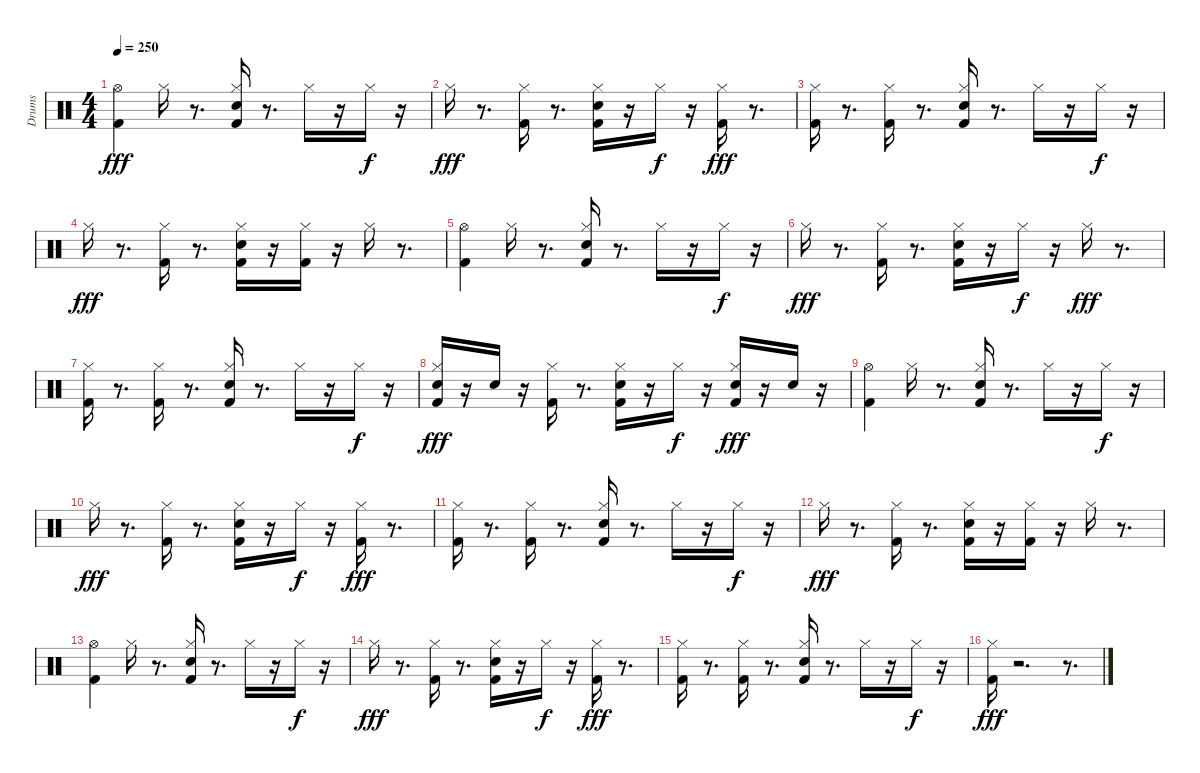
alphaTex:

\track ("Drums" "Drums") {instrument percussion}
\staff {score}
\articulation defaults
\ts (4 4)
\tempo 250
\clef neutral
\ks c
("Hi-Hat (open)" "Kick (hit) 2").4{dy fff} "Hi-Hat (closed)".16 r.8{d} ("Kick (hit) 2" "Electric Snare (hit)" "Hi-Hat (closed)").16 r.8{d} "Hi-Hat (closed)".16 r.16 "Hi-Hat (closed)".16{dy f} r.16 |
"Hi-Hat (closed)".16{dy fff} r.8{d} ("Kick (hit) 2" "Hi-Hat (closed)").16 r.8{d} ("Kick (hit) 2" "Electric Snare (hit)" "Hi-Hat (closed)").16 r.16 "Hi-Hat (closed)".16{dy f} r.16 ("Kick (hit) 2" "Hi-Hat (closed)").16{dy fff} r.8{d} |
("Kick (hit) 2" "Hi-Hat (closed)").16 r.8{d} ("Hi-Hat (closed)" "Kick (hit) 2").16 r.8{d} ("Kick (hit) 2" "Electric Snare (hit)" "Hi-Hat (closed)").16 r.8{d} "Hi-Hat (closed)".16 r.16 "Hi-Hat (closed)".16{dy f} r.16 |
"Hi-Hat (closed)".16{dy fff} r.8{d} ("Kick (hit) 2" "Hi-Hat (closed)").16 r.8{d} ("Kick (hit) 2" "Electric Snare (hit)" "Hi-Hat (closed)").16 r.16 ("Hi-Hat (closed)" "Kick (hit) 2").16 r.16 "Hi-Hat (closed)".16 r.8{d} |
("Kick (hit) 2" "Hi-Hat (open)").4 "Hi-Hat (closed)".16 r.8{d} ("Kick (hit) 2" "Electric Snare (hit)" "Hi-Hat (closed)").16 r.8{d} "Hi-Hat (closed)".16 r.16 "Hi-Hat (closed)".16{dy f} r.16 |
"Hi-Hat (closed)".16{dy fff} r.8{d} ("Kick (hit) 2" "Hi-Hat (closed)").16 r.8{d} ("Kick (hit) 2" "Electric Snare (hit)" "Hi-Hat (closed)").16 r.16 "Hi-Hat (closed)".16{dy f} r.16 "Hi-Hat (closed)".16{dy fff} r.8{d} |
("Kick (hit) 2" "Hi-Hat (closed)").16 r.8{d} ("Hi-Hat (closed)" "Kick (hit) 2").16 r.8{d} ("Kick (hit) 2" "Electric Snare (hit)" "Hi-Hat (closed)").16 r.8{d} "Hi-Hat (closed)".16 r.16 "Hi-Hat (closed)".16{dy f} r.16 |
("Hi-Hat (closed)" "Electric Snare (hit)" "Kick (hit) 2").16{dy fff} r.16 "Electric Snare (hit)".16 r.16 ("Hi-Hat (closed)" "Kick (hit) 2").16 r.8{d} ("Hi-Hat (closed)" "Electric Snare (hit)" "Kick (hit) 2").16 r.16 "Hi-Hat (closed)".16{dy f} r.16 ("Hi-Hat (closed)" "Electric Snare (hit)" "Kick (hit) 2").16{dy fff} r.16 "Electric Snare (hit)".16 r.16 |
("Kick (hit) 2" "Hi-Hat (open)").4 "Hi-Hat (closed)".16 r.8{d} ("Kick (hit) 2" "Electric Snare (hit)" "Hi-Hat (closed)").16 r.8{d} "Hi-Hat (closed)".16 r.16 "Hi-Hat (closed)".16{dy f} r.16 |
"Hi-Hat (closed)".16{dy fff} r.8{d} ("Kick (hit) 2" "Hi-Hat (closed)").16 r.8{d} ("Kick (hit) 2" "Electric Snare (hit)" "Hi-Hat (closed)").16 r.16 "Hi-Hat (closed)".16{dy f} r.16 ("Kick (hit) 2" "Hi-Hat (closed)").16{dy fff} r.8{d} |
("Kick (hit) 2" "Hi-Hat (closed)").16 r.8{d} ("Hi-Hat (closed)" "Kick (hit) 2").16 r.8{d} ("Kick (hit) 2" "Electric Snare (hit)" "Hi-Hat (closed)").16 r.8{d} "Hi-Hat (closed)".16 r.16 "Hi-Hat (closed)".16{dy f} r.16 |
"Hi-Hat (closed)".16{dy fff} r.8{d} ("Kick (hit) 2" "Hi-Hat (closed)").16 r.8{d} ("Kick (hit) 2" "Electric Snare (hit)" "Hi-Hat (closed)").16 r.16 ("Hi-Hat (closed)" "Kick (hit) 2").16 r.16 "Hi-Hat (closed)".16 r.8{d} |
("Hi-Hat (open)" "Kick (hit) 2").4 "Hi-Hat (closed)".16 r.8{d} ("Kick (hit) 2" "Electric Snare (hit)" "Hi-Hat (closed)").16 r.8{d} "Hi-Hat (closed)".16 r.16 "Hi-Hat (closed)".16{dy f} r.16 |
"Hi-Hat (closed)".16{dy fff} r.8{d} ("Kick (hit) 2" "Hi-Hat (closed)").16 r.8{d} ("Kick (hit) 2" "Electric Snare (hit)" "Hi-Hat (closed)").16 r.16 "Hi-Hat (closed)".16{dy f} r.16 ("Kick (hit) 2" "Hi-Hat (closed)").16{dy fff} r.8{d} |
("Kick (hit) 2" "Hi-Hat (closed)").16 r.8{d} ("Hi-Hat (closed)" "Kick (hit) 2").16 r.8{d} ("Kick (hit) 2" "Electric Snare (hit)" "Hi-Hat (closed)").16 r.8{d} "Hi-Hat (closed)".16 r.16 "Hi-Hat (closed)".16{dy f} r.16 |
("Hi-Hat (closed)" "Kick (hit) 2").16{dy fff} r.2{d} r.8{d}
